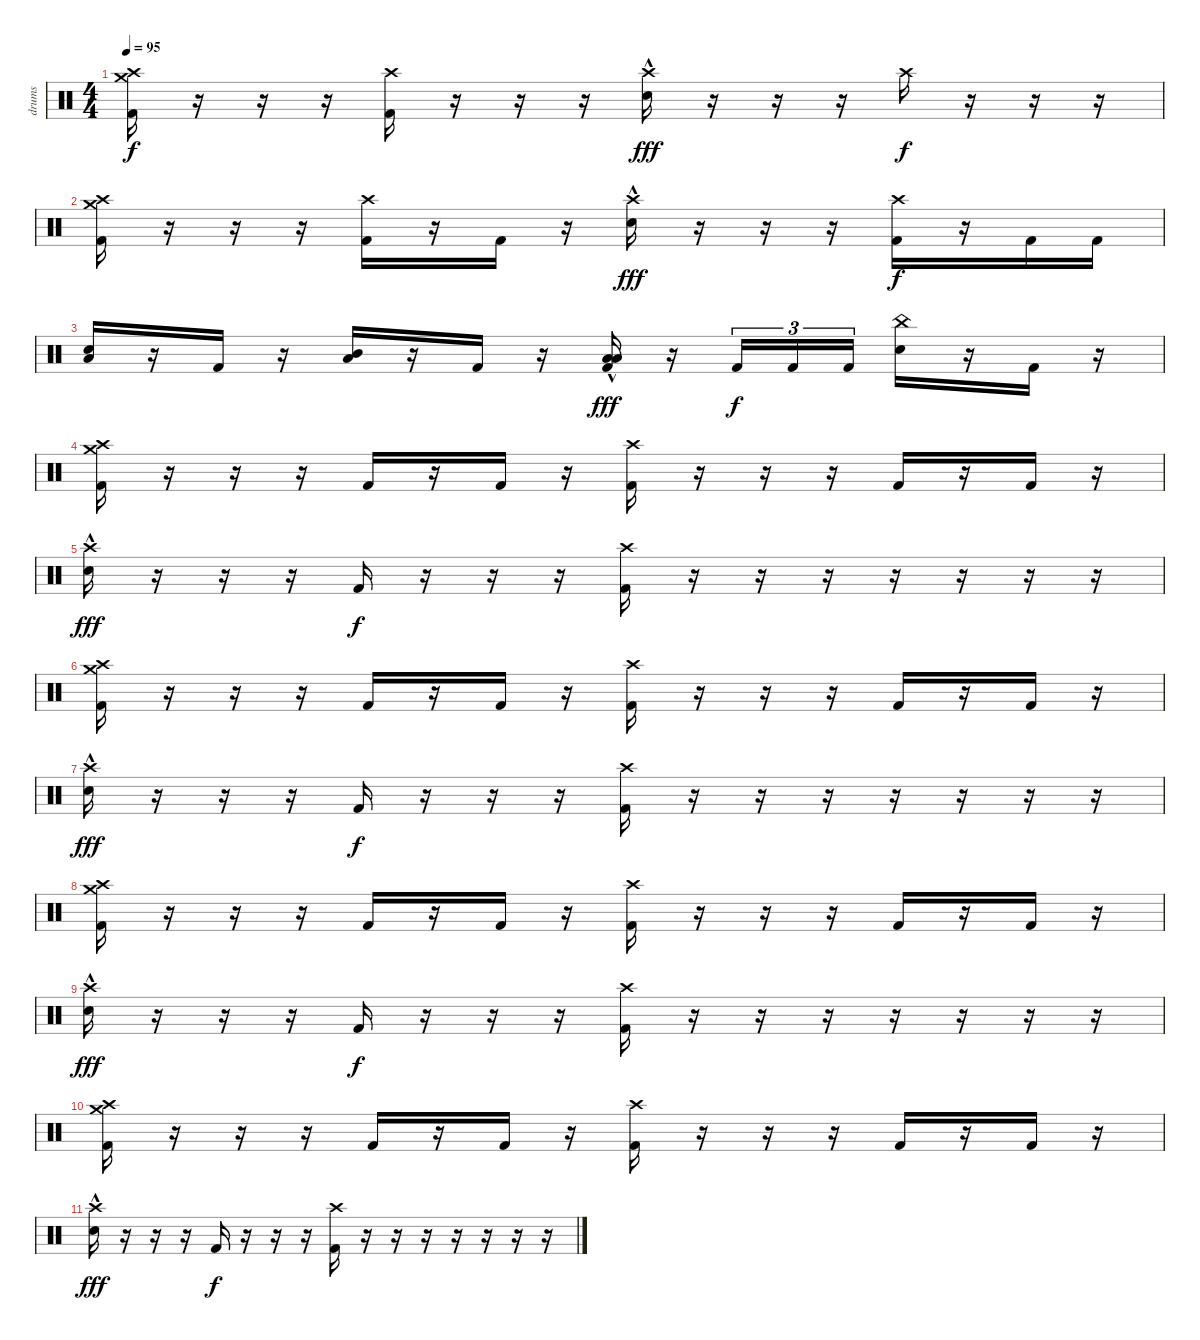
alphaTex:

\track ("drums" "drums") {instrument percussion}
\staff {score}
\articulation defaults
\ts (4 4)
\tempo 95
\clef neutral
\ks c
("Crash high (hit)" "Crash medium (hit)" "Kick (hit) 2").16{dy f} r.16 r.16 r.16 ("Crash high (hit)" "Kick (hit) 2").16 r.16 r.16 r.16 ("Crash high (hit)" "Electric Snare (hit)"{hac}).16{dy fff} r.16 r.16 r.16 "Crash high (hit)".16{dy f} r.16 r.16 r.16 |
("Crash high (hit)" "Crash medium (hit)" "Kick (hit) 2").16 r.16 r.16 r.16 ("Crash high (hit)" "Kick (hit) 2").16 r.16 "Kick (hit) 2".16 r.16 ("Crash high (hit)" "Electric Snare (hit)"{hac}).16{dy fff} r.16 r.16 r.16 ("Crash high (hit)" "Kick (hit) 2").16{dy f} r.16 "Kick (hit) 2".16 "Kick (hit) 2".16 |
("Low Floor Tom (hit)" "Electric Snare (hit)").16 r.16 "Kick (hit) 2".16 r.16 ("Low Floor Tom (hit)" "Mid Tom (hit)").16 r.16 "Kick (hit) 2".16 r.16 ("Low Floor Tom (hit)" "Low Tom (hit)"{hac} "Kick (hit) 2").16{dy fff} r.16 "Kick (hit) 2".16{tu (3 2) dy f} "Kick (hit) 2".16{tu (3 2)} "Kick (hit) 2".16{tu (3 2)} ("China (hit)" "Electric Snare (hit)").16 r.16 "Kick (hit) 2".16 r.16 |
("Crash high (hit)" "Crash medium (hit)" "Kick (hit) 2").16 r.16 r.16 r.16 "Kick (hit) 2".16 r.16 "Kick (hit) 2".16 r.16 ("Crash high (hit)" "Kick (hit) 2").16 r.16 r.16 r.16 "Kick (hit) 2".16 r.16 "Kick (hit) 2".16 r.16 |
("Crash high (hit)" "Electric Snare (hit)"{hac}).16{dy fff} r.16 r.16 r.16 "Kick (hit) 2".16{dy f} r.16 r.16 r.16 ("Crash high (hit)" "Kick (hit) 2").16 r.16 r.16 r.16 r.16 r.16 r.16 r.16 |
("Crash high (hit)" "Crash medium (hit)" "Kick (hit) 2").16 r.16 r.16 r.16 "Kick (hit) 2".16 r.16 "Kick (hit) 2".16 r.16 ("Crash high (hit)" "Kick (hit) 2").16 r.16 r.16 r.16 "Kick (hit) 2".16 r.16 "Kick (hit) 2".16 r.16 |
("Crash high (hit)" "Electric Snare (hit)"{hac}).16{dy fff} r.16 r.16 r.16 "Kick (hit) 2".16{dy f} r.16 r.16 r.16 ("Crash high (hit)" "Kick (hit) 2").16 r.16 r.16 r.16 r.16 r.16 r.16 r.16 |
("Crash high (hit)" "Crash medium (hit)" "Kick (hit) 2").16 r.16 r.16 r.16 "Kick (hit) 2".16 r.16 "Kick (hit) 2".16 r.16 ("Crash high (hit)" "Kick (hit) 2").16 r.16 r.16 r.16 "Kick (hit) 2".16 r.16 "Kick (hit) 2".16 r.16 |
("Crash high (hit)" "Electric Snare (hit)"{hac}).16{dy fff} r.16 r.16 r.16 "Kick (hit) 2".16{dy f} r.16 r.16 r.16 ("Crash high (hit)" "Kick (hit) 2").16 r.16 r.16 r.16 r.16 r.16 r.16 r.16 |
("Crash high (hit)" "Crash medium (hit)" "Kick (hit) 2").16 r.16 r.16 r.16 "Kick (hit) 2".16 r.16 "Kick (hit) 2".16 r.16 ("Crash high (hit)" "Kick (hit) 2").16 r.16 r.16 r.16 "Kick (hit) 2".16 r.16 "Kick (hit) 2".16 r.16 |
("Crash high (hit)" "Electric Snare (hit)"{hac}).16{dy fff} r.16 r.16 r.16 "Kick (hit) 2".16{dy f} r.16 r.16 r.16 ("Crash high (hit)" "Kick (hit) 2").16 r.16 r.16 r.16 r.16 r.16 r.16 r.16
